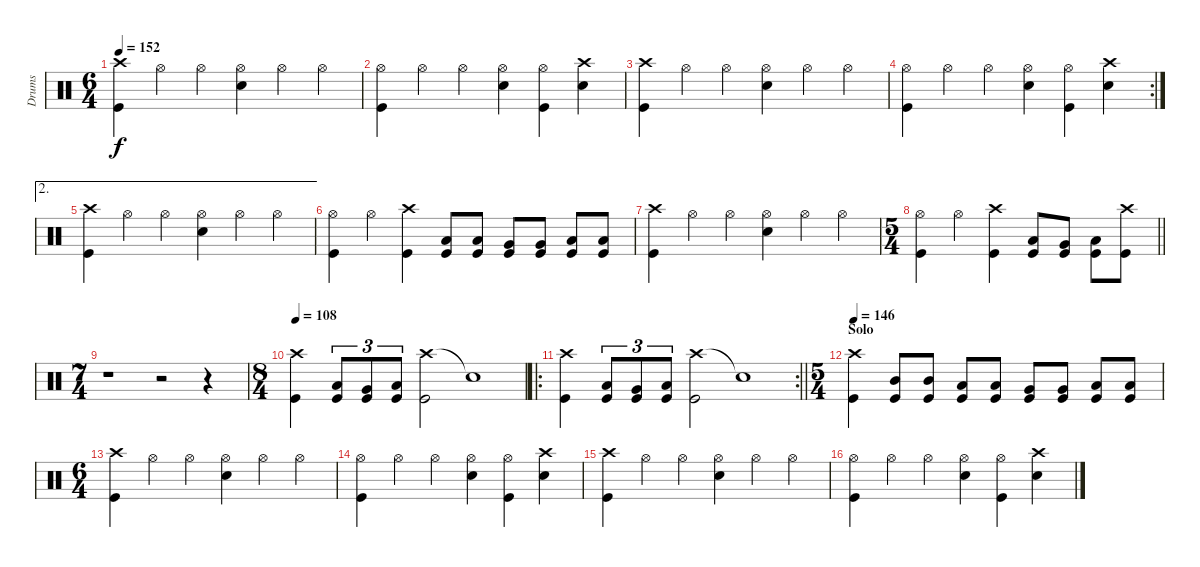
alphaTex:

\track ("Drums" "Drums") {instrument percussion}
\staff {score}
\articulation defaults
\ts (6 4)
\tempo 152
\clef neutral
\ks c
("Crash high (hit)" "Kick (hit)").4{dy f} "Hi-Hat (open)".4 "Hi-Hat (open)".4 ("Hi-Hat (open)" "Snare (hit) 2").4 "Hi-Hat (open)".4 "Hi-Hat (open)".4 |
("Hi-Hat (open)" "Kick (hit)").4 "Hi-Hat (open)".4 "Hi-Hat (open)".4 ("Hi-Hat (open)" "Snare (hit) 2").4 ("Hi-Hat (open)" "Kick (hit)").4 ("Crash high (hit)" "Snare (hit) 2").4 |
("Crash high (hit)" "Kick (hit)").4 "Hi-Hat (open)".4 "Hi-Hat (open)".4 ("Hi-Hat (open)" "Snare (hit) 2").4 "Hi-Hat (open)".4 "Hi-Hat (open)".4 |
\rc 2
("Hi-Hat (open)" "Kick (hit)").4 "Hi-Hat (open)".4 "Hi-Hat (open)".4 ("Hi-Hat (open)" "Snare (hit) 2").4 ("Hi-Hat (open)" "Kick (hit)").4 ("Crash high (hit)" "Snare (hit) 2").4 |
\ae 2
("Crash high (hit)" "Kick (hit)").4 "Hi-Hat (open)".4 "Hi-Hat (open)".4 ("Hi-Hat (open)" "Snare (hit) 2").4 "Hi-Hat (open)".4 "Hi-Hat (open)".4 |
("Hi-Hat (open)" "Kick (hit)").4 "Hi-Hat (open)".4 ("Crash high (hit)" "Kick (hit)").4 ("Low Tom (hit)" "Kick (hit)").8 ("Low Tom (hit)" "Kick (hit)").8 ("Very Low Tom (hit)" "Kick (hit)").8 ("Very Low Tom (hit)" "Kick (hit)").8 ("Low Floor Tom (hit)" "Kick (hit)").8 ("Low Floor Tom (hit)" "Kick (hit)").8 |
("Crash high (hit)" "Kick (hit)").4 "Hi-Hat (open)".4 "Hi-Hat (open)".4 ("Hi-Hat (open)" "Snare (hit) 2").4 "Hi-Hat (open)".4 "Hi-Hat (open)".4 |
\ts (5 4)
\barLineRight lightlight
("Hi-Hat (open)" "Kick (hit)").4 "Hi-Hat (open)".4 ("Crash high (hit)" "Kick (hit)").4 ("Low Tom (hit)" "Kick (hit)").8 ("Very Low Tom (hit)" "Kick (hit)").8 ("Low Floor Tom (hit)" "Kick (hit)").8 ("Crash high (hit)" "Kick (hit)").8 |
\ts (7 4)
r.1 r.2 r.4 |
\ts (8 4)
\tempo 100
\tempo 108
("Crash high (hit)" "Kick (hit)").4 ("Low Tom (hit)" "Kick (hit)").8{tu (3 2)} ("Very Low Tom (hit)" "Kick (hit)").8{tu (3 2)} ("Low Floor Tom (hit)" "Kick (hit)").8{tu (3 2)} ("Crash high (hit)" "Kick (hit)").2 "Snare (hit)"{t}.1 |
\ro
\rc 2
\barLineRight lightlight
("Crash high (hit)" "Kick (hit)").4 ("Low Tom (hit)" "Kick (hit)").8{tu (3 2)} ("Very Low Tom (hit)" "Kick (hit)").8{tu (3 2)} ("Low Floor Tom (hit)" "Kick (hit)").8{tu (3 2)} ("Crash high (hit)" "Kick (hit)").2 "Snare (hit)"{t}.1 |
\ts (5 4)
\section ("" "Solo")
\tempo 146
("Crash high (hit)" "Kick (hit)").4 ("Mid Tom (hit)" "Kick (hit)").8 ("Mid Tom (hit)" "Kick (hit)").8 ("Low Tom (hit)" "Kick (hit)").8 ("Low Tom (hit)" "Kick (hit)").8 ("Very Low Tom (hit)" "Kick (hit)").8 ("Very Low Tom (hit)" "Kick (hit)").8 ("Low Floor Tom (hit)" "Kick (hit)").8 ("Low Floor Tom (hit)" "Kick (hit)").8 |
\ts (6 4)
("Crash high (hit)" "Kick (hit)").4 "Hi-Hat (open)".4 "Hi-Hat (open)".4 ("Hi-Hat (open)" "Snare (hit) 2").4 "Hi-Hat (open)".4 "Hi-Hat (open)".4 |
("Hi-Hat (open)" "Kick (hit)").4 "Hi-Hat (open)".4 "Hi-Hat (open)".4 ("Hi-Hat (open)" "Snare (hit) 2").4 ("Hi-Hat (open)" "Kick (hit)").4 ("Crash high (hit)" "Snare (hit) 2").4 |
("Crash high (hit)" "Kick (hit)").4 "Hi-Hat (open)".4 "Hi-Hat (open)".4 ("Hi-Hat (open)" "Snare (hit) 2").4 "Hi-Hat (open)".4 "Hi-Hat (open)".4 |
("Hi-Hat (open)" "Kick (hit)").4 "Hi-Hat (open)".4 "Hi-Hat (open)".4 ("Hi-Hat (open)" "Snare (hit) 2").4 ("Hi-Hat (open)" "Kick (hit)").4 ("Crash high (hit)" "Snare (hit) 2").4
